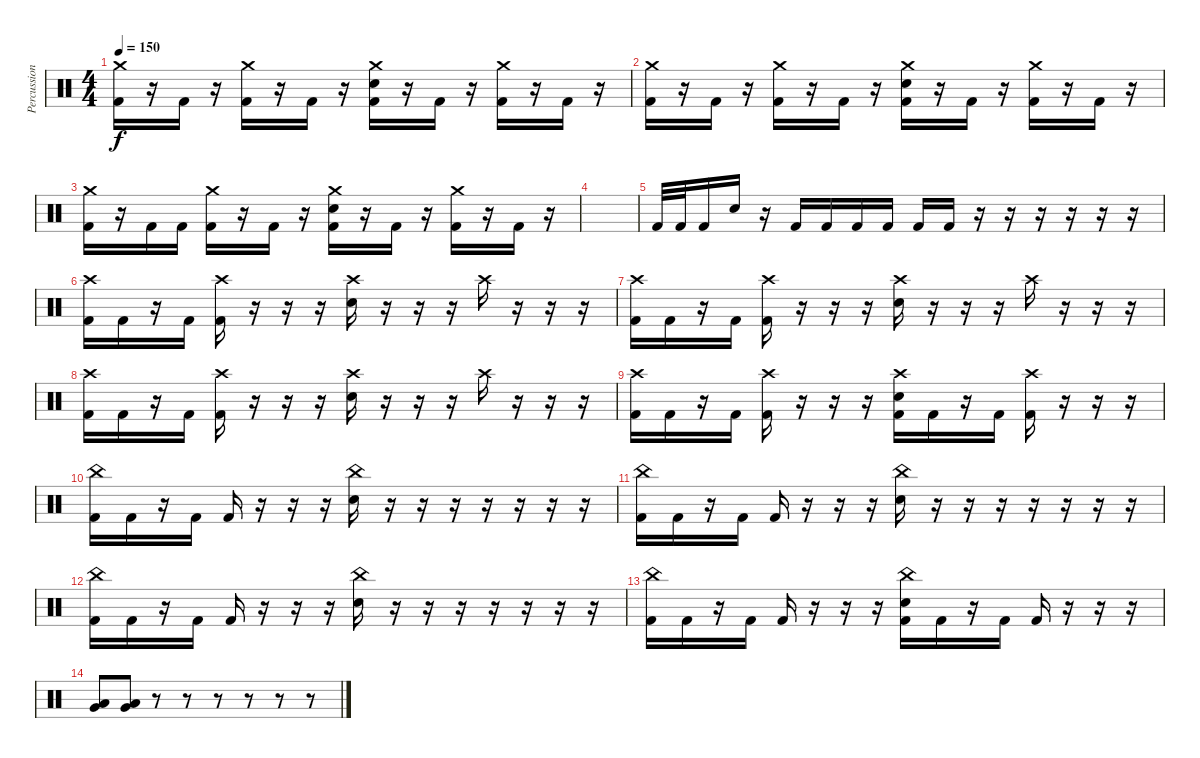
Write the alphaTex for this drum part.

\track ("Percussion" "Percussion") {instrument percussion}
\staff {score}
\articulation defaults
\ts (4 4)
\tempo 150
\clef neutral
\ks c
("Crash medium (hit)" "Kick (hit) 2").16{dy f} r.16 "Kick (hit) 2".16 r.16 ("Crash medium (hit)" "Kick (hit) 2").16 r.16 "Kick (hit) 2".16 r.16 ("Crash medium (hit)" "Snare (hit) 2" "Kick (hit) 2").16 r.16 "Kick (hit) 2".16 r.16 ("Crash medium (hit)" "Kick (hit) 2").16 r.16 "Kick (hit) 2".16 r.16 |
("Crash medium (hit)" "Kick (hit) 2").16 r.16 "Kick (hit) 2".16 r.16 ("Crash medium (hit)" "Kick (hit) 2").16 r.16 "Kick (hit) 2".16 r.16 ("Crash medium (hit)" "Snare (hit) 2" "Kick (hit) 2").16 r.16 "Kick (hit) 2".16 r.16 ("Crash medium (hit)" "Kick (hit) 2").16 r.16 "Kick (hit) 2".16 r.16 |
("Crash medium (hit)" "Kick (hit) 2").16 r.16 "Kick (hit) 2".16 "Kick (hit) 2".16 ("Crash medium (hit)" "Kick (hit) 2").16 r.16 "Kick (hit) 2".16 r.16 ("Crash medium (hit)" "Snare (hit) 2" "Kick (hit) 2").16 r.16 "Kick (hit) 2".16 r.16 ("Crash medium (hit)" "Kick (hit) 2").16 r.16 "Kick (hit) 2".16 r.16 |
|
"Kick (hit) 2".32 "Kick (hit) 2".32 "Kick (hit) 2".16 "Snare (hit) 2".16 r.16 "Kick (hit) 2".16 "Kick (hit) 2".16 "Kick (hit) 2".16 "Kick (hit) 2".16 "Kick (hit) 2".16 "Kick (hit) 2".16 r.16 r.16 r.16 r.16 r.16 r.16 |
("Crash high (hit)" "Kick (hit) 2").16 "Kick (hit) 2".16 r.16 "Kick (hit) 2".16 ("Crash high (hit)" "Kick (hit) 2").16 r.16 r.16 r.16 ("Crash high (hit)" "Snare (hit) 2").16 r.16 r.16 r.16 "Crash high (hit)".16 r.16 r.16 r.16 |
("Crash high (hit)" "Kick (hit) 2").16 "Kick (hit) 2".16 r.16 "Kick (hit) 2".16 ("Crash high (hit)" "Kick (hit) 2").16 r.16 r.16 r.16 ("Crash high (hit)" "Snare (hit) 2").16 r.16 r.16 r.16 "Crash high (hit)".16 r.16 r.16 r.16 |
("Crash high (hit)" "Kick (hit) 2").16 "Kick (hit) 2".16 r.16 "Kick (hit) 2".16 ("Crash high (hit)" "Kick (hit) 2").16 r.16 r.16 r.16 ("Crash high (hit)" "Snare (hit) 2").16 r.16 r.16 r.16 "Crash high (hit)".16 r.16 r.16 r.16 |
("Crash high (hit)" "Kick (hit) 2").16 "Kick (hit) 2".16 r.16 "Kick (hit) 2".16 ("Crash high (hit)" "Kick (hit) 2").16 r.16 r.16 r.16 ("Crash high (hit)" "Snare (hit) 2" "Kick (hit) 2").16 "Kick (hit) 2".16 r.16 "Kick (hit) 2".16 ("Crash high (hit)" "Kick (hit) 2").16 r.16 r.16 r.16 |
("China (hit)" "Kick (hit) 2").16 "Kick (hit) 2".16 r.16 "Kick (hit) 2".16 "Kick (hit) 2".16 r.16 r.16 r.16 ("China (hit)" "Snare (hit) 2").16 r.16 r.16 r.16 r.16 r.16 r.16 r.16 |
("China (hit)" "Kick (hit) 2").16 "Kick (hit) 2".16 r.16 "Kick (hit) 2".16 "Kick (hit) 2".16 r.16 r.16 r.16 ("China (hit)" "Snare (hit) 2").16 r.16 r.16 r.16 r.16 r.16 r.16 r.16 |
("China (hit)" "Kick (hit) 2").16 "Kick (hit) 2".16 r.16 "Kick (hit) 2".16 "Kick (hit) 2".16 r.16 r.16 r.16 ("China (hit)" "Snare (hit) 2").16 r.16 r.16 r.16 r.16 r.16 r.16 r.16 |
("China (hit)" "Kick (hit) 2").16 "Kick (hit) 2".16 r.16 "Kick (hit) 2".16 "Kick (hit) 2".16 r.16 r.16 r.16 ("China (hit)" "Snare (hit) 2" "Kick (hit) 2").16 "Kick (hit) 2".16 r.16 "Kick (hit) 2".16 "Kick (hit) 2".16 r.16 r.16 r.16 |
("Low Tom (hit)" "Very Low Tom (hit)").8 ("Low Tom (hit)" "Very Low Tom (hit)").8 r.8 r.8 r.8 r.8 r.8 r.8
